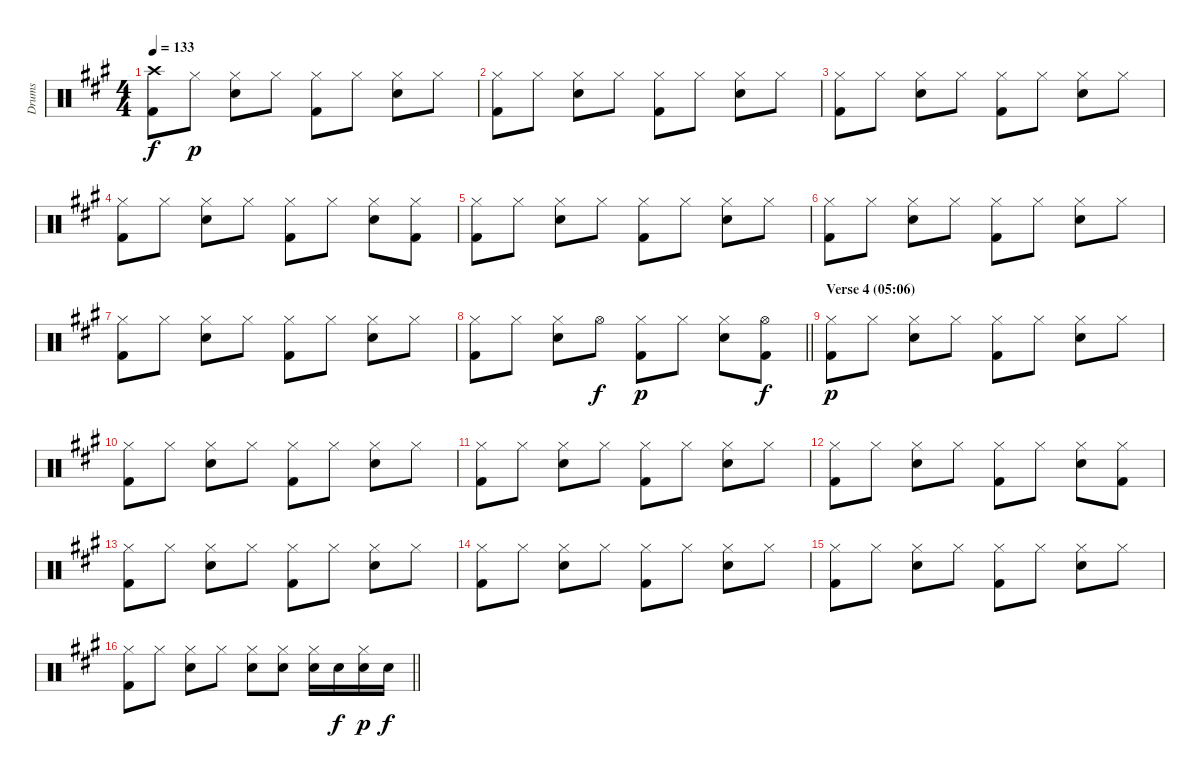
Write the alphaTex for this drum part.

\track ("Drums" "Drums") {instrument percussion}
\staff {score}
\articulation defaults
\ts (4 4)
\tempo 133
\clef neutral
\ks a
("Crash high (hit)" "Kick (hit) 2").8{dy f} "Hi-Hat (closed)".8{dy p} ("Hi-Hat (closed)" "Snare (hit) 2").8 "Hi-Hat (closed)".8 ("Hi-Hat (closed)" "Kick (hit) 2").8 "Hi-Hat (closed)".8 ("Hi-Hat (closed)" "Snare (hit) 2").8 "Hi-Hat (closed)".8 |
("Hi-Hat (closed)" "Kick (hit) 2").8 "Hi-Hat (closed)".8 ("Hi-Hat (closed)" "Snare (hit) 2").8 "Hi-Hat (closed)".8 ("Hi-Hat (closed)" "Kick (hit) 2").8 "Hi-Hat (closed)".8 ("Hi-Hat (closed)" "Snare (hit) 2").8 "Hi-Hat (closed)".8 |
("Hi-Hat (closed)" "Kick (hit) 2").8 "Hi-Hat (closed)".8 ("Hi-Hat (closed)" "Snare (hit) 2").8 "Hi-Hat (closed)".8 ("Hi-Hat (closed)" "Kick (hit) 2").8 "Hi-Hat (closed)".8 ("Hi-Hat (closed)" "Snare (hit) 2").8 "Hi-Hat (closed)".8 |
("Hi-Hat (closed)" "Kick (hit) 2").8 "Hi-Hat (closed)".8 ("Hi-Hat (closed)" "Snare (hit) 2").8 "Hi-Hat (closed)".8 ("Hi-Hat (closed)" "Kick (hit) 2").8 "Hi-Hat (closed)".8 ("Hi-Hat (closed)" "Snare (hit) 2").8 ("Hi-Hat (closed)" "Kick (hit) 2").8 |
("Hi-Hat (closed)" "Kick (hit) 2").8 "Hi-Hat (closed)".8 ("Hi-Hat (closed)" "Snare (hit) 2").8 "Hi-Hat (closed)".8 ("Hi-Hat (closed)" "Kick (hit) 2").8 "Hi-Hat (closed)".8 ("Hi-Hat (closed)" "Snare (hit) 2").8 "Hi-Hat (closed)".8 |
("Hi-Hat (closed)" "Kick (hit) 2").8 "Hi-Hat (closed)".8 ("Hi-Hat (closed)" "Snare (hit) 2").8 "Hi-Hat (closed)".8 ("Hi-Hat (closed)" "Kick (hit) 2").8 "Hi-Hat (closed)".8 ("Hi-Hat (closed)" "Snare (hit) 2").8 "Hi-Hat (closed)".8 |
("Hi-Hat (closed)" "Kick (hit) 2").8 "Hi-Hat (closed)".8 ("Hi-Hat (closed)" "Snare (hit) 2").8 "Hi-Hat (closed)".8 ("Hi-Hat (closed)" "Kick (hit) 2").8 "Hi-Hat (closed)".8 ("Hi-Hat (closed)" "Snare (hit) 2").8 "Hi-Hat (closed)".8 |
\barLineRight lightlight
("Hi-Hat (closed)" "Kick (hit) 2").8 "Hi-Hat (closed)".8 ("Hi-Hat (closed)" "Snare (hit) 2").8 "Hi-Hat (open)".8{dy f} ("Hi-Hat (closed)" "Kick (hit) 2").8{dy p} "Hi-Hat (closed)".8 ("Hi-Hat (closed)" "Snare (hit) 2").8 ("Hi-Hat (open)" "Kick (hit) 2").8{dy f} |
\section ("" "Verse 4 (05:06)")
("Hi-Hat (closed)" "Kick (hit) 2").8{dy p} "Hi-Hat (closed)".8 ("Hi-Hat (closed)" "Snare (hit) 2").8 "Hi-Hat (closed)".8 ("Hi-Hat (closed)" "Kick (hit) 2").8 "Hi-Hat (closed)".8 ("Hi-Hat (closed)" "Snare (hit) 2").8 "Hi-Hat (closed)".8 |
("Hi-Hat (closed)" "Kick (hit) 2").8 "Hi-Hat (closed)".8 ("Hi-Hat (closed)" "Snare (hit) 2").8 "Hi-Hat (closed)".8 ("Hi-Hat (closed)" "Kick (hit) 2").8 "Hi-Hat (closed)".8 ("Hi-Hat (closed)" "Snare (hit) 2").8 "Hi-Hat (closed)".8 |
("Hi-Hat (closed)" "Kick (hit) 2").8 "Hi-Hat (closed)".8 ("Hi-Hat (closed)" "Snare (hit) 2").8 "Hi-Hat (closed)".8 ("Hi-Hat (closed)" "Kick (hit) 2").8 "Hi-Hat (closed)".8 ("Hi-Hat (closed)" "Snare (hit) 2").8 "Hi-Hat (closed)".8 |
("Hi-Hat (closed)" "Kick (hit) 2").8 "Hi-Hat (closed)".8 ("Hi-Hat (closed)" "Snare (hit) 2").8 "Hi-Hat (closed)".8 ("Hi-Hat (closed)" "Kick (hit) 2").8 "Hi-Hat (closed)".8 ("Hi-Hat (closed)" "Snare (hit) 2").8 ("Hi-Hat (closed)" "Kick (hit) 2").8 |
("Hi-Hat (closed)" "Kick (hit) 2").8 "Hi-Hat (closed)".8 ("Hi-Hat (closed)" "Snare (hit) 2").8 "Hi-Hat (closed)".8 ("Hi-Hat (closed)" "Kick (hit) 2").8 "Hi-Hat (closed)".8 ("Hi-Hat (closed)" "Snare (hit) 2").8 "Hi-Hat (closed)".8 |
("Hi-Hat (closed)" "Kick (hit) 2").8 "Hi-Hat (closed)".8 ("Hi-Hat (closed)" "Snare (hit) 2").8 "Hi-Hat (closed)".8 ("Hi-Hat (closed)" "Kick (hit) 2").8 "Hi-Hat (closed)".8 ("Hi-Hat (closed)" "Snare (hit) 2").8 "Hi-Hat (closed)".8 |
("Hi-Hat (closed)" "Kick (hit) 2").8 "Hi-Hat (closed)".8 ("Hi-Hat (closed)" "Snare (hit) 2").8 "Hi-Hat (closed)".8 ("Hi-Hat (closed)" "Kick (hit) 2").8 "Hi-Hat (closed)".8 ("Hi-Hat (closed)" "Snare (hit) 2").8 "Hi-Hat (closed)".8 |
\barLineRight lightlight
("Hi-Hat (closed)" "Kick (hit) 2").8 "Hi-Hat (closed)".8 ("Hi-Hat (closed)" "Snare (hit) 2").8 "Hi-Hat (closed)".8 ("Hi-Hat (closed)" "Snare (hit) 2").8 ("Hi-Hat (closed)" "Snare (hit) 2").8 ("Hi-Hat (closed)" "Snare (hit) 2").16 "Snare (hit) 2".16{dy f} ("Hi-Hat (closed)" "Snare (hit) 2").16{dy p} "Snare (hit) 2".16{dy f}
